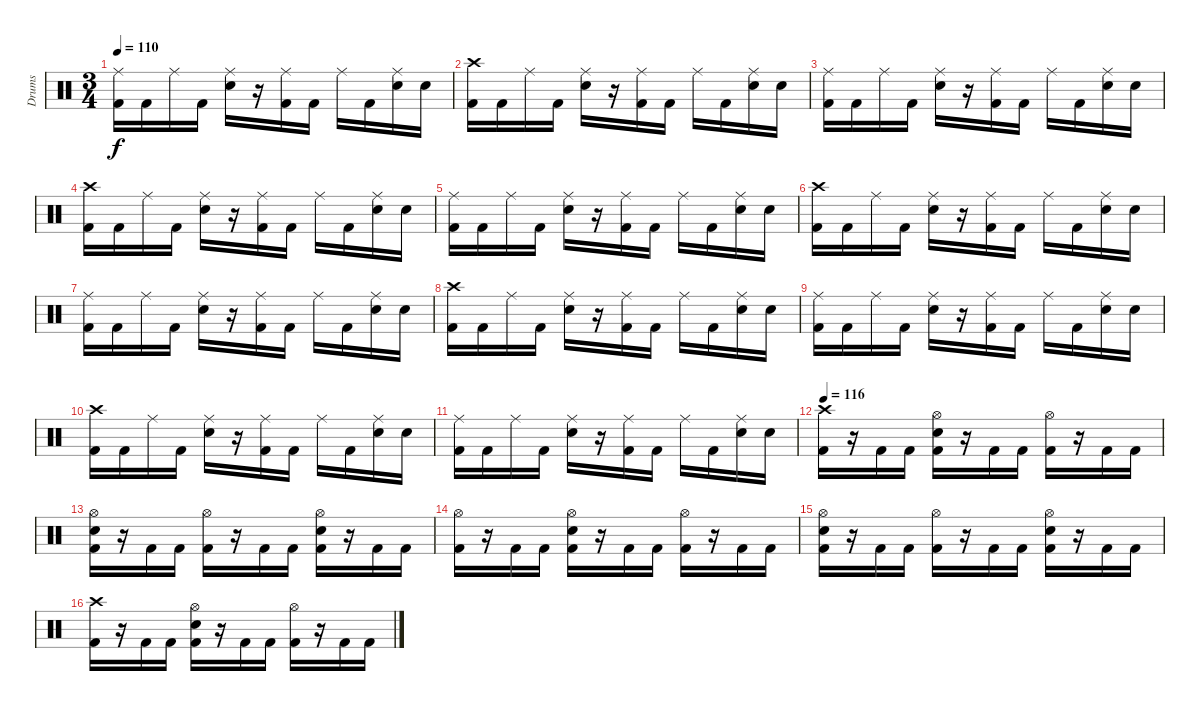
\track ("Drums" "Drums") {instrument percussion}
\staff {score}
\articulation defaults
\ts (3 4)
\tempo 110
\clef neutral
\ks c
("Ride (middle)" "Kick (hit) 2").16{dy f} "Kick (hit) 2".16 "Ride (middle)".16 "Kick (hit) 2".16 ("Ride (middle)" "Snare (hit) 2").16 r.16 ("Ride (middle)" "Kick (hit) 2").16 "Kick (hit) 2".16 "Ride (middle)".16 "Kick (hit) 2".16 ("Ride (middle)" "Snare (hit) 2").16 "Snare (hit) 2".16 |
("Crash high (hit)" "Kick (hit) 2").16 "Kick (hit) 2".16 "Ride (middle)".16 "Kick (hit) 2".16 ("Ride (middle)" "Snare (hit) 2").16 r.16 ("Ride (middle)" "Kick (hit) 2").16 "Kick (hit) 2".16 "Ride (middle)".16 "Kick (hit) 2".16 ("Ride (middle)" "Snare (hit) 2").16 "Snare (hit) 2".16 |
("Ride (middle)" "Kick (hit) 2").16 "Kick (hit) 2".16 "Ride (middle)".16 "Kick (hit) 2".16 ("Ride (middle)" "Snare (hit) 2").16 r.16 ("Ride (middle)" "Kick (hit) 2").16 "Kick (hit) 2".16 "Ride (middle)".16 "Kick (hit) 2".16 ("Ride (middle)" "Snare (hit) 2").16 "Snare (hit) 2".16 |
("Crash high (hit)" "Kick (hit) 2").16 "Kick (hit) 2".16 "Ride (middle)".16 "Kick (hit) 2".16 ("Ride (middle)" "Snare (hit) 2").16 r.16 ("Ride (middle)" "Kick (hit) 2").16 "Kick (hit) 2".16 "Ride (middle)".16 "Kick (hit) 2".16 ("Ride (middle)" "Snare (hit) 2").16 "Snare (hit) 2".16 |
("Ride (middle)" "Kick (hit) 2").16 "Kick (hit) 2".16 "Ride (middle)".16 "Kick (hit) 2".16 ("Ride (middle)" "Snare (hit) 2").16 r.16 ("Ride (middle)" "Kick (hit) 2").16 "Kick (hit) 2".16 "Ride (middle)".16 "Kick (hit) 2".16 ("Ride (middle)" "Snare (hit) 2").16 "Snare (hit) 2".16 |
("Crash high (hit)" "Kick (hit) 2").16 "Kick (hit) 2".16 "Ride (middle)".16 "Kick (hit) 2".16 ("Ride (middle)" "Snare (hit) 2").16 r.16 ("Ride (middle)" "Kick (hit) 2").16 "Kick (hit) 2".16 "Ride (middle)".16 "Kick (hit) 2".16 ("Ride (middle)" "Snare (hit) 2").16 "Snare (hit) 2".16 |
("Ride (middle)" "Kick (hit) 2").16 "Kick (hit) 2".16 "Ride (middle)".16 "Kick (hit) 2".16 ("Ride (middle)" "Snare (hit) 2").16 r.16 ("Ride (middle)" "Kick (hit) 2").16 "Kick (hit) 2".16 "Ride (middle)".16 "Kick (hit) 2".16 ("Ride (middle)" "Snare (hit) 2").16 "Snare (hit) 2".16 |
("Crash high (hit)" "Kick (hit) 2").16 "Kick (hit) 2".16 "Ride (middle)".16 "Kick (hit) 2".16 ("Ride (middle)" "Snare (hit) 2").16 r.16 ("Ride (middle)" "Kick (hit) 2").16 "Kick (hit) 2".16 "Ride (middle)".16 "Kick (hit) 2".16 ("Ride (middle)" "Snare (hit) 2").16 "Snare (hit) 2".16 |
("Ride (middle)" "Kick (hit) 2").16 "Kick (hit) 2".16 "Ride (middle)".16 "Kick (hit) 2".16 ("Ride (middle)" "Snare (hit) 2").16 r.16 ("Ride (middle)" "Kick (hit) 2").16 "Kick (hit) 2".16 "Ride (middle)".16 "Kick (hit) 2".16 ("Ride (middle)" "Snare (hit) 2").16 "Snare (hit) 2".16 |
("Crash high (hit)" "Kick (hit) 2").16 "Kick (hit) 2".16 "Ride (middle)".16 "Kick (hit) 2".16 ("Ride (middle)" "Snare (hit) 2").16 r.16 ("Ride (middle)" "Kick (hit) 2").16 "Kick (hit) 2".16 "Ride (middle)".16 "Kick (hit) 2".16 ("Ride (middle)" "Snare (hit) 2").16 "Snare (hit) 2".16 |
("Ride (middle)" "Kick (hit) 2").16 "Kick (hit) 2".16 "Ride (middle)".16 "Kick (hit) 2".16 ("Ride (middle)" "Snare (hit) 2").16 r.16 ("Ride (middle)" "Kick (hit) 2").16 "Kick (hit) 2".16 "Ride (middle)".16 "Kick (hit) 2".16 ("Ride (middle)" "Snare (hit) 2").16 "Snare (hit) 2".16 |
\tempo 116
("Crash high (hit)" "Kick (hit) 2").16 r.16 "Kick (hit) 2".16 "Kick (hit) 2".16 ("Hi-Hat (open)" "Snare (hit) 2" "Kick (hit) 2").16 r.16 "Kick (hit) 2".16 "Kick (hit) 2".16 ("Hi-Hat (open)" "Kick (hit) 2").16 r.16 "Kick (hit) 2".16 "Kick (hit) 2".16 |
("Hi-Hat (open)" "Snare (hit) 2" "Kick (hit) 2").16 r.16 "Kick (hit) 2".16 "Kick (hit) 2".16 ("Hi-Hat (open)" "Kick (hit) 2").16 r.16 "Kick (hit) 2".16 "Kick (hit) 2".16 ("Hi-Hat (open)" "Snare (hit) 2" "Kick (hit) 2").16 r.16 "Kick (hit) 2".16 "Kick (hit) 2".16 |
("Hi-Hat (open)" "Kick (hit) 2").16 r.16 "Kick (hit) 2".16 "Kick (hit) 2".16 ("Hi-Hat (open)" "Snare (hit) 2" "Kick (hit) 2").16 r.16 "Kick (hit) 2".16 "Kick (hit) 2".16 ("Hi-Hat (open)" "Kick (hit) 2").16 r.16 "Kick (hit) 2".16 "Kick (hit) 2".16 |
("Hi-Hat (open)" "Snare (hit) 2" "Kick (hit) 2").16 r.16 "Kick (hit) 2".16 "Kick (hit) 2".16 ("Hi-Hat (open)" "Kick (hit) 2").16 r.16 "Kick (hit) 2".16 "Kick (hit) 2".16 ("Hi-Hat (open)" "Snare (hit) 2" "Kick (hit) 2").16 r.16 "Kick (hit) 2".16 "Kick (hit) 2".16 |
("Crash high (hit)" "Kick (hit) 2").16 r.16 "Kick (hit) 2".16 "Kick (hit) 2".16 ("Hi-Hat (open)" "Snare (hit) 2" "Kick (hit) 2").16 r.16 "Kick (hit) 2".16 "Kick (hit) 2".16 ("Hi-Hat (open)" "Kick (hit) 2").16 r.16 "Kick (hit) 2".16 "Kick (hit) 2".16
